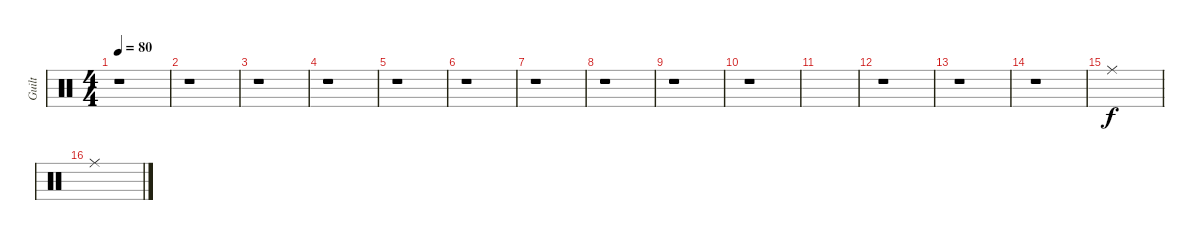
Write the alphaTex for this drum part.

\track ("Guilt" "Guilt") {instrument percussion}
\staff {score}
\articulation defaults
\ts (4 4)
\tempo 80
\clef neutral
\ks c
r.1{dy f} |
r.1 |
r.1 |
r.1 |
r.1 |
r.1 |
r.1 |
r.1 |
r.1 |
r.1 |
|
r.1 |
r.1 |
r.1 |
"Ride (middle)".1 |
"Ride (middle)".1
